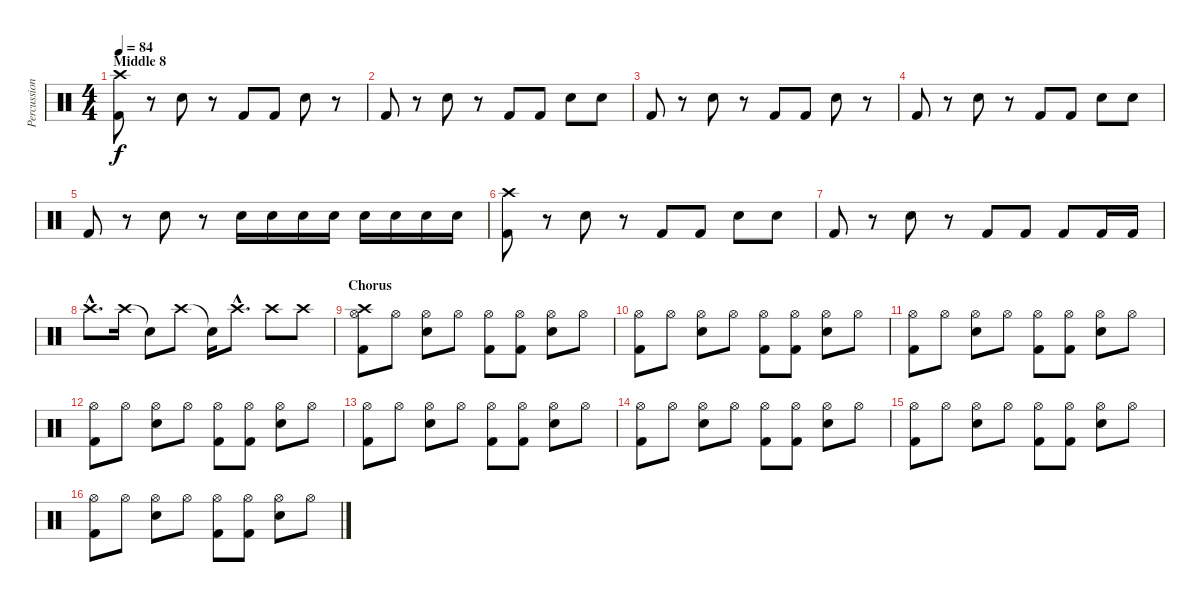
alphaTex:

\track ("Percussion" "Percussion") {instrument percussion}
\staff {score}
\articulation defaults
\ts (4 4)
\section ("" "Middle 8")
\tempo 84
\clef neutral
\ks c
("Crash high (hit)" "Kick (hit) 2").8{dy f} r.8 "Electric Snare (hit)".8 r.8 "Kick (hit) 2".8 "Kick (hit) 2".8 "Electric Snare (hit)".8 r.8 |
"Kick (hit) 2".8 r.8 "Electric Snare (hit)".8 r.8 "Kick (hit) 2".8 "Kick (hit) 2".8 "Electric Snare (hit)".8 "Electric Snare (hit)".8 |
"Kick (hit) 2".8 r.8 "Electric Snare (hit)".8 r.8 "Kick (hit) 2".8 "Kick (hit) 2".8 "Electric Snare (hit)".8 r.8 |
"Kick (hit) 2".8 r.8 "Electric Snare (hit)".8 r.8 "Kick (hit) 2".8 "Kick (hit) 2".8 "Electric Snare (hit)".8 "Electric Snare (hit)".8 |
"Kick (hit) 2".8 r.8 "Electric Snare (hit)".8 r.8 "Electric Snare (hit)".16 "Electric Snare (hit)".16 "Electric Snare (hit)".16 "Electric Snare (hit)".16 "Electric Snare (hit)".16 "Electric Snare (hit)".16 "Electric Snare (hit)".16 "Electric Snare (hit)".16 |
("Crash high (hit)" "Kick (hit) 2").8 r.8 "Electric Snare (hit)".8 r.8 "Kick (hit) 2".8 "Kick (hit) 2".8 "Electric Snare (hit)".8 "Electric Snare (hit)".8 |
"Kick (hit) 2".8 r.8 "Electric Snare (hit)".8 r.8 "Kick (hit) 2".8 "Kick (hit) 2".8 "Kick (hit) 2".8 "Kick (hit) 2".16 "Kick (hit) 2".16 |
"Crash high (hit)"{hac}.8{d} "Crash high (hit)".16 "Snare (hit)"{t}.8 "Crash high (hit)".8 "Snare (hit)"{t}.16 "Crash high (hit)"{hac}.8{d} "Crash high (hit)".8 "Crash high (hit)".8 |
\section ("" "Chorus")
("Crash high (hit)" "Kick (hit) 2" "Hi-Hat (open)").8 "Hi-Hat (open)".8 ("Electric Snare (hit)" "Hi-Hat (open)").8 "Hi-Hat (open)".8 ("Kick (hit) 2" "Hi-Hat (open)").8 ("Kick (hit) 2" "Hi-Hat (open)").8 ("Electric Snare (hit)" "Hi-Hat (open)").8 "Hi-Hat (open)".8 |
("Kick (hit) 2" "Hi-Hat (open)").8 "Hi-Hat (open)".8 ("Electric Snare (hit)" "Hi-Hat (open)").8 "Hi-Hat (open)".8 ("Kick (hit) 2" "Hi-Hat (open)").8 ("Kick (hit) 2" "Hi-Hat (open)").8 ("Electric Snare (hit)" "Hi-Hat (open)").8 "Hi-Hat (open)".8 |
("Kick (hit) 2" "Hi-Hat (open)").8 "Hi-Hat (open)".8 ("Electric Snare (hit)" "Hi-Hat (open)").8 "Hi-Hat (open)".8 ("Kick (hit) 2" "Hi-Hat (open)").8 ("Kick (hit) 2" "Hi-Hat (open)").8 ("Electric Snare (hit)" "Hi-Hat (open)").8 "Hi-Hat (open)".8 |
("Kick (hit) 2" "Hi-Hat (open)").8 "Hi-Hat (open)".8 ("Electric Snare (hit)" "Hi-Hat (open)").8 "Hi-Hat (open)".8 ("Kick (hit) 2" "Hi-Hat (open)").8 ("Kick (hit) 2" "Hi-Hat (open)").8 ("Electric Snare (hit)" "Hi-Hat (open)").8 "Hi-Hat (open)".8 |
("Kick (hit) 2" "Hi-Hat (open)").8 "Hi-Hat (open)".8 ("Electric Snare (hit)" "Hi-Hat (open)").8 "Hi-Hat (open)".8 ("Kick (hit) 2" "Hi-Hat (open)").8 ("Kick (hit) 2" "Hi-Hat (open)").8 ("Electric Snare (hit)" "Hi-Hat (open)").8 "Hi-Hat (open)".8 |
("Kick (hit) 2" "Hi-Hat (open)").8 "Hi-Hat (open)".8 ("Electric Snare (hit)" "Hi-Hat (open)").8 "Hi-Hat (open)".8 ("Kick (hit) 2" "Hi-Hat (open)").8 ("Kick (hit) 2" "Hi-Hat (open)").8 ("Electric Snare (hit)" "Hi-Hat (open)").8 "Hi-Hat (open)".8 |
("Kick (hit) 2" "Hi-Hat (open)").8 "Hi-Hat (open)".8 ("Electric Snare (hit)" "Hi-Hat (open)").8 "Hi-Hat (open)".8 ("Kick (hit) 2" "Hi-Hat (open)").8 ("Kick (hit) 2" "Hi-Hat (open)").8 ("Electric Snare (hit)" "Hi-Hat (open)").8 "Hi-Hat (open)".8 |
("Kick (hit) 2" "Hi-Hat (open)").8 "Hi-Hat (open)".8 ("Electric Snare (hit)" "Hi-Hat (open)").8 "Hi-Hat (open)".8 ("Kick (hit) 2" "Hi-Hat (open)").8 ("Kick (hit) 2" "Hi-Hat (open)").8 ("Electric Snare (hit)" "Hi-Hat (open)").8 "Hi-Hat (open)".8
